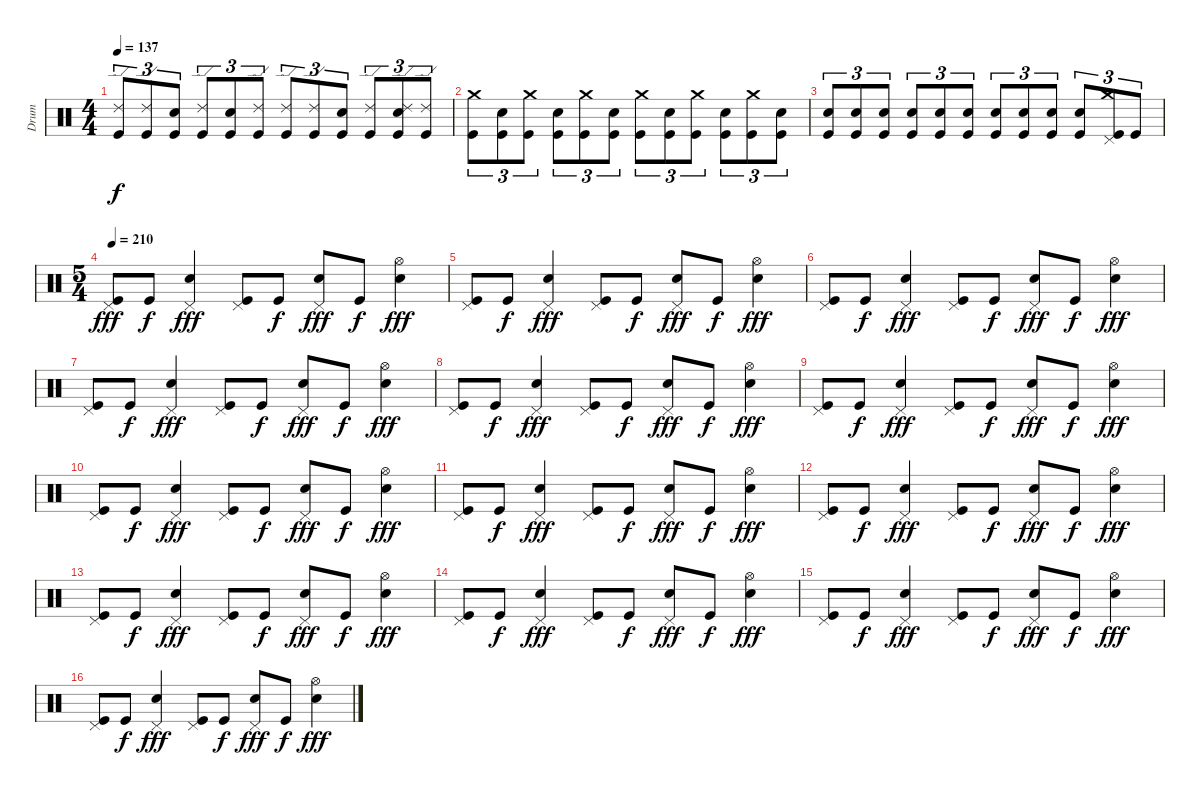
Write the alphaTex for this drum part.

\track ("Drum" "Drum") {instrument percussion}
\staff {score}
\articulation defaults
\ts (4 4)
\tempo 137
\clef neutral
\ks c
("Ride (edge) 2" "Kick (hit)").8{tu (3 2) dy f} ("Ride (edge) 2" "Kick (hit)").8{tu (3 2)} ("Snare (hit) 2" "Kick (hit)").8{tu (3 2)} ("Ride (edge) 2" "Kick (hit)").8{tu (3 2)} ("Snare (hit) 2" "Kick (hit)").8{tu (3 2)} ("Ride (edge) 2" "Kick (hit)").8{tu (3 2)} ("Ride (edge) 2" "Kick (hit)").8{tu (3 2)} ("Ride (edge) 2" "Kick (hit)").8{tu (3 2)} ("Snare (hit) 2" "Kick (hit)").8{tu (3 2)} ("Ride (edge) 2" "Kick (hit)").8{tu (3 2)} ("Ride (edge) 2" "Snare (hit) 2" "Kick (hit)").8{tu (3 2)} ("Ride (edge) 2" "Kick (hit)").8{tu (3 2)} |
("Crash medium (hit)" "Kick (hit)").8{tu (3 2)} ("Snare (hit) 2" "Kick (hit)").8{tu (3 2)} ("Crash medium (hit)" "Kick (hit)").8{tu (3 2)} ("Snare (hit) 2" "Kick (hit)").8{tu (3 2)} ("Crash medium (hit)" "Kick (hit)").8{tu (3 2)} ("Snare (hit) 2" "Kick (hit)").8{tu (3 2)} ("Crash medium (hit)" "Kick (hit)").8{tu (3 2)} ("Snare (hit) 2" "Kick (hit)").8{tu (3 2)} ("Crash medium (hit)" "Kick (hit)").8{tu (3 2)} ("Snare (hit) 2" "Kick (hit)").8{tu (3 2)} ("Crash medium (hit)" "Kick (hit)").8{tu (3 2)} ("Snare (hit) 2" "Kick (hit)").8{tu (3 2)} |
("Snare (hit) 2" "Kick (hit)").8{tu (3 2)} ("Snare (hit) 2" "Kick (hit)").8{tu (3 2)} ("Snare (hit) 2" "Kick (hit)").8{tu (3 2)} ("Snare (hit) 2" "Kick (hit)").8{tu (3 2)} ("Snare (hit) 2" "Kick (hit)").8{tu (3 2)} ("Snare (hit) 2" "Kick (hit)").8{tu (3 2)} ("Snare (hit) 2" "Kick (hit)").8{tu (3 2)} ("Snare (hit) 2" "Kick (hit)").8{tu (3 2)} ("Snare (hit) 2" "Kick (hit)").8{tu (3 2)} ("Snare (hit) 2" "Kick (hit)").8{tu (3 2)} ("Crash medium (hit)" "Pedal Hi-Hat (hit)" "Kick (hit)").8{tu (3 2)} "Kick (hit)".8{tu (3 2)} |
\ts (5 4)
\tempo 210
("Pedal Hi-Hat (hit)" "Kick (hit)").8{dy fff} "Kick (hit)".8{dy f} ("Pedal Hi-Hat (hit)" "Snare (hit) 2").4{dy fff} ("Pedal Hi-Hat (hit)" "Kick (hit)").8 "Kick (hit)".8{dy f} ("Pedal Hi-Hat (hit)" "Snare (hit) 2").8{dy fff} "Kick (hit)".8{dy f} ("Hi-Hat (open)" "Snare (hit) 2").4{dy fff} |
("Pedal Hi-Hat (hit)" "Kick (hit)").8 "Kick (hit)".8{dy f} ("Pedal Hi-Hat (hit)" "Snare (hit) 2").4{dy fff} ("Pedal Hi-Hat (hit)" "Kick (hit)").8 "Kick (hit)".8{dy f} ("Pedal Hi-Hat (hit)" "Snare (hit) 2").8{dy fff} "Kick (hit)".8{dy f} ("Hi-Hat (open)" "Snare (hit) 2").4{dy fff} |
("Pedal Hi-Hat (hit)" "Kick (hit)").8 "Kick (hit)".8{dy f} ("Pedal Hi-Hat (hit)" "Snare (hit) 2").4{dy fff} ("Pedal Hi-Hat (hit)" "Kick (hit)").8 "Kick (hit)".8{dy f} ("Pedal Hi-Hat (hit)" "Snare (hit) 2").8{dy fff} "Kick (hit)".8{dy f} ("Hi-Hat (open)" "Snare (hit) 2").4{dy fff} |
("Pedal Hi-Hat (hit)" "Kick (hit)").8 "Kick (hit)".8{dy f} ("Pedal Hi-Hat (hit)" "Snare (hit) 2").4{dy fff} ("Pedal Hi-Hat (hit)" "Kick (hit)").8 "Kick (hit)".8{dy f} ("Pedal Hi-Hat (hit)" "Snare (hit) 2").8{dy fff} "Kick (hit)".8{dy f} ("Hi-Hat (open)" "Snare (hit) 2").4{dy fff} |
("Pedal Hi-Hat (hit)" "Kick (hit)").8 "Kick (hit)".8{dy f} ("Pedal Hi-Hat (hit)" "Snare (hit) 2").4{dy fff} ("Pedal Hi-Hat (hit)" "Kick (hit)").8 "Kick (hit)".8{dy f} ("Pedal Hi-Hat (hit)" "Snare (hit) 2").8{dy fff} "Kick (hit)".8{dy f} ("Hi-Hat (open)" "Snare (hit) 2").4{dy fff} |
("Pedal Hi-Hat (hit)" "Kick (hit)").8 "Kick (hit)".8{dy f} ("Pedal Hi-Hat (hit)" "Snare (hit) 2").4{dy fff} ("Pedal Hi-Hat (hit)" "Kick (hit)").8 "Kick (hit)".8{dy f} ("Pedal Hi-Hat (hit)" "Snare (hit) 2").8{dy fff} "Kick (hit)".8{dy f} ("Hi-Hat (open)" "Snare (hit) 2").4{dy fff} |
("Pedal Hi-Hat (hit)" "Kick (hit)").8 "Kick (hit)".8{dy f} ("Pedal Hi-Hat (hit)" "Snare (hit) 2").4{dy fff} ("Pedal Hi-Hat (hit)" "Kick (hit)").8 "Kick (hit)".8{dy f} ("Pedal Hi-Hat (hit)" "Snare (hit) 2").8{dy fff} "Kick (hit)".8{dy f} ("Hi-Hat (open)" "Snare (hit) 2").4{dy fff} |
("Pedal Hi-Hat (hit)" "Kick (hit)").8 "Kick (hit)".8{dy f} ("Pedal Hi-Hat (hit)" "Snare (hit) 2").4{dy fff} ("Pedal Hi-Hat (hit)" "Kick (hit)").8 "Kick (hit)".8{dy f} ("Pedal Hi-Hat (hit)" "Snare (hit) 2").8{dy fff} "Kick (hit)".8{dy f} ("Hi-Hat (open)" "Snare (hit) 2").4{dy fff} |
("Pedal Hi-Hat (hit)" "Kick (hit)").8 "Kick (hit)".8{dy f} ("Pedal Hi-Hat (hit)" "Snare (hit) 2").4{dy fff} ("Pedal Hi-Hat (hit)" "Kick (hit)").8 "Kick (hit)".8{dy f} ("Pedal Hi-Hat (hit)" "Snare (hit) 2").8{dy fff} "Kick (hit)".8{dy f} ("Hi-Hat (open)" "Snare (hit) 2").4{dy fff} |
("Pedal Hi-Hat (hit)" "Kick (hit)").8 "Kick (hit)".8{dy f} ("Pedal Hi-Hat (hit)" "Snare (hit) 2").4{dy fff} ("Pedal Hi-Hat (hit)" "Kick (hit)").8 "Kick (hit)".8{dy f} ("Pedal Hi-Hat (hit)" "Snare (hit) 2").8{dy fff} "Kick (hit)".8{dy f} ("Hi-Hat (open)" "Snare (hit) 2").4{dy fff} |
("Pedal Hi-Hat (hit)" "Kick (hit)").8 "Kick (hit)".8{dy f} ("Pedal Hi-Hat (hit)" "Snare (hit) 2").4{dy fff} ("Pedal Hi-Hat (hit)" "Kick (hit)").8 "Kick (hit)".8{dy f} ("Pedal Hi-Hat (hit)" "Snare (hit) 2").8{dy fff} "Kick (hit)".8{dy f} ("Hi-Hat (open)" "Snare (hit) 2").4{dy fff} |
("Pedal Hi-Hat (hit)" "Kick (hit)").8 "Kick (hit)".8{dy f} ("Pedal Hi-Hat (hit)" "Snare (hit) 2").4{dy fff} ("Pedal Hi-Hat (hit)" "Kick (hit)").8 "Kick (hit)".8{dy f} ("Pedal Hi-Hat (hit)" "Snare (hit) 2").8{dy fff} "Kick (hit)".8{dy f} ("Hi-Hat (open)" "Snare (hit) 2").4{dy fff} |
("Pedal Hi-Hat (hit)" "Kick (hit)").8 "Kick (hit)".8{dy f} ("Pedal Hi-Hat (hit)" "Snare (hit) 2").4{dy fff} ("Pedal Hi-Hat (hit)" "Kick (hit)").8 "Kick (hit)".8{dy f} ("Pedal Hi-Hat (hit)" "Snare (hit) 2").8{dy fff} "Kick (hit)".8{dy f} ("Hi-Hat (open)" "Snare (hit) 2").4{dy fff}
